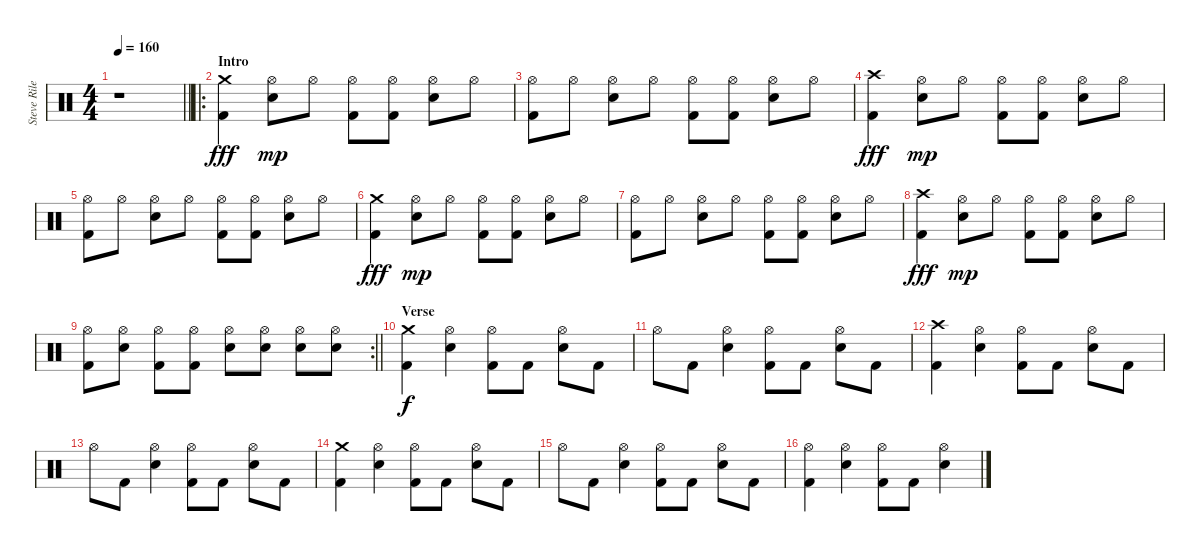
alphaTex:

\track ("Steve Riley" "Steve Rile") {instrument percussion}
\staff {score}
\articulation defaults
\ts (4 4)
\tempo 160
\clef neutral
\barLineRight lightlight
\ks c
r.1{dy fff} |
\ro
\section ("" "Intro")
("Crash medium (hit)" "Kick (hit) 2").4 ("Hi-Hat (open)" "Snare (hit) 2").8{dy mp} "Hi-Hat (open)".8 ("Hi-Hat (open)" "Kick (hit) 2").8 ("Hi-Hat (open)" "Kick (hit) 2").8 ("Hi-Hat (open)" "Snare (hit) 2").8 "Hi-Hat (open)".8 |
("Hi-Hat (open)" "Kick (hit) 2").8 "Hi-Hat (open)".8 ("Hi-Hat (open)" "Snare (hit) 2").8 "Hi-Hat (open)".8 ("Hi-Hat (open)" "Kick (hit) 2").8 ("Hi-Hat (open)" "Kick (hit) 2").8 ("Hi-Hat (open)" "Snare (hit) 2").8 "Hi-Hat (open)".8 |
("Crash high (hit)" "Kick (hit) 2").4{dy fff} ("Hi-Hat (open)" "Snare (hit) 2").8{dy mp} "Hi-Hat (open)".8 ("Hi-Hat (open)" "Kick (hit) 2").8 ("Hi-Hat (open)" "Kick (hit) 2").8 ("Hi-Hat (open)" "Snare (hit) 2").8 "Hi-Hat (open)".8 |
("Hi-Hat (open)" "Kick (hit) 2").8 "Hi-Hat (open)".8 ("Hi-Hat (open)" "Snare (hit) 2").8 "Hi-Hat (open)".8 ("Hi-Hat (open)" "Kick (hit) 2").8 ("Hi-Hat (open)" "Kick (hit) 2").8 ("Hi-Hat (open)" "Snare (hit) 2").8 "Hi-Hat (open)".8 |
("Crash medium (hit)" "Kick (hit) 2").4{dy fff} ("Hi-Hat (open)" "Snare (hit) 2").8{dy mp} "Hi-Hat (open)".8 ("Hi-Hat (open)" "Kick (hit) 2").8 ("Hi-Hat (open)" "Kick (hit) 2").8 ("Hi-Hat (open)" "Snare (hit) 2").8 "Hi-Hat (open)".8 |
("Hi-Hat (open)" "Kick (hit) 2").8 "Hi-Hat (open)".8 ("Hi-Hat (open)" "Snare (hit) 2").8 "Hi-Hat (open)".8 ("Hi-Hat (open)" "Kick (hit) 2").8 ("Hi-Hat (open)" "Kick (hit) 2").8 ("Hi-Hat (open)" "Snare (hit) 2").8 "Hi-Hat (open)".8 |
("Crash high (hit)" "Kick (hit) 2").4{dy fff} ("Hi-Hat (open)" "Snare (hit) 2").8{dy mp} "Hi-Hat (open)".8 ("Hi-Hat (open)" "Kick (hit) 2").8 ("Hi-Hat (open)" "Kick (hit) 2").8 ("Hi-Hat (open)" "Snare (hit) 2").8 "Hi-Hat (open)".8 |
\rc 2
\barLineRight lightlight
("Hi-Hat (open)" "Kick (hit) 2").8 ("Hi-Hat (open)" "Snare (hit) 2").8 ("Hi-Hat (open)" "Kick (hit) 2").8 ("Hi-Hat (open)" "Kick (hit) 2").8 ("Hi-Hat (open)" "Snare (hit) 2").8 ("Hi-Hat (open)" "Snare (hit) 2").8 ("Hi-Hat (open)" "Snare (hit) 2").8 ("Hi-Hat (open)" "Snare (hit) 2").8 |
\section ("" "Verse")
("Crash medium (hit)" "Kick (hit) 2").4{dy f} ("Hi-Hat (open)" "Snare (hit) 2").4 ("Hi-Hat (open)" "Kick (hit) 2").8 "Kick (hit) 2".8 ("Hi-Hat (open)" "Snare (hit) 2").8 "Kick (hit) 2".8 |
"Hi-Hat (open)".8 "Kick (hit) 2".8 ("Hi-Hat (open)" "Snare (hit) 2").4 ("Hi-Hat (open)" "Kick (hit) 2").8 "Kick (hit) 2".8 ("Hi-Hat (open)" "Snare (hit) 2").8 "Kick (hit) 2".8 |
("Crash high (hit)" "Kick (hit) 2").4 ("Hi-Hat (open)" "Snare (hit) 2").4 ("Hi-Hat (open)" "Kick (hit) 2").8 "Kick (hit) 2".8 ("Hi-Hat (open)" "Snare (hit) 2").8 "Kick (hit) 2".8 |
"Hi-Hat (open)".8 "Kick (hit) 2".8 ("Hi-Hat (open)" "Snare (hit) 2").4 ("Hi-Hat (open)" "Kick (hit) 2").8 "Kick (hit) 2".8 ("Hi-Hat (open)" "Snare (hit) 2").8 "Kick (hit) 2".8 |
("Crash medium (hit)" "Kick (hit) 2").4 ("Hi-Hat (open)" "Snare (hit) 2").4 ("Hi-Hat (open)" "Kick (hit) 2").8 "Kick (hit) 2".8 ("Hi-Hat (open)" "Snare (hit) 2").8 "Kick (hit) 2".8 |
"Hi-Hat (open)".8 "Kick (hit) 2".8 ("Hi-Hat (open)" "Snare (hit) 2").4 ("Hi-Hat (open)" "Kick (hit) 2").8 "Kick (hit) 2".8 ("Hi-Hat (open)" "Snare (hit) 2").8 "Kick (hit) 2".8 |
("Hi-Hat (open)" "Kick (hit) 2").4 ("Hi-Hat (open)" "Snare (hit) 2").4 ("Hi-Hat (open)" "Kick (hit) 2").8 "Kick (hit) 2".8 ("Hi-Hat (open)" "Snare (hit) 2").4
